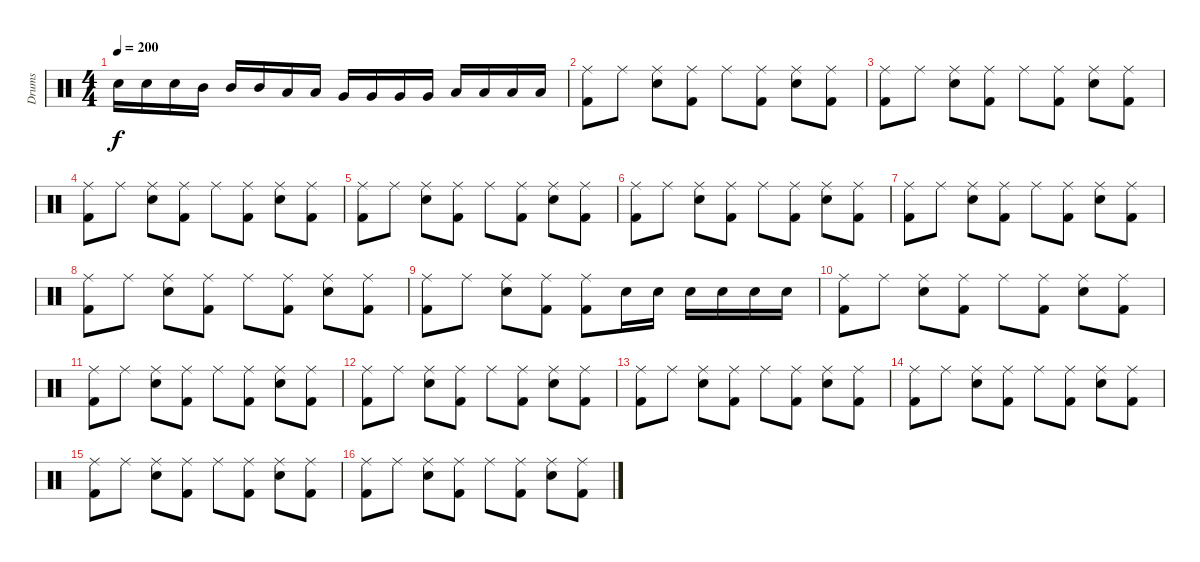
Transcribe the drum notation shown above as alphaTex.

\track ("Drums" "Drums") {instrument percussion}
\staff {score}
\articulation defaults
\ts (4 4)
\tempo 200
\clef neutral
\ks c "Electric Snare (hit)".16{dy f} "Electric Snare (hit)".16 "Electric Snare (hit)".16 "Mid Tom (hit)".16 "Mid Tom (hit)".16 "Mid Tom (hit)".16 "Low Tom (hit)".16 "Low Tom (hit)".16 "Very Low Tom (hit)".16 "Very Low Tom (hit)".16 "Very Low Tom (hit)".16 "Very Low Tom (hit)".16 "Low Floor Tom (hit)".16 "Low Floor Tom (hit)".16 "Low Floor Tom (hit)".16 "Low Floor Tom (hit)".16
|
("Kick (hit) 2" "Ride (middle)").8 "Ride (middle)".8 ("Electric Snare (hit)" "Ride (middle)").8 ("Kick (hit) 2" "Ride (middle)").8 "Ride (middle)".8 ("Kick (hit) 2" "Ride (middle)").8 ("Electric Snare (hit)" "Ride (middle)").8 ("Kick (hit) 2" "Ride (middle)").8 |
("Kick (hit) 2" "Ride (middle)").8 "Ride (middle)".8 ("Electric Snare (hit)" "Ride (middle)").8 ("Kick (hit) 2" "Ride (middle)").8 "Ride (middle)".8 ("Kick (hit) 2" "Ride (middle)").8 ("Electric Snare (hit)" "Ride (middle)").8 ("Kick (hit) 2" "Ride (middle)").8 |
("Kick (hit) 2" "Ride (middle)").8 "Ride (middle)".8 ("Electric Snare (hit)" "Ride (middle)").8 ("Kick (hit) 2" "Ride (middle)").8 "Ride (middle)".8 ("Kick (hit) 2" "Ride (middle)").8 ("Electric Snare (hit)" "Ride (middle)").8 ("Kick (hit) 2" "Ride (middle)").8 |
("Kick (hit) 2" "Ride (middle)").8 "Ride (middle)".8 ("Electric Snare (hit)" "Ride (middle)").8 ("Kick (hit) 2" "Ride (middle)").8 "Ride (middle)".8 ("Kick (hit) 2" "Ride (middle)").8 ("Electric Snare (hit)" "Ride (middle)").8 ("Kick (hit) 2" "Ride (middle)").8 |
("Kick (hit) 2" "Ride (middle)").8 "Ride (middle)".8 ("Electric Snare (hit)" "Ride (middle)").8 ("Kick (hit) 2" "Ride (middle)").8 "Ride (middle)".8 ("Kick (hit) 2" "Ride (middle)").8 ("Electric Snare (hit)" "Ride (middle)").8 ("Kick (hit) 2" "Ride (middle)").8 |
("Kick (hit) 2" "Ride (middle)").8 "Ride (middle)".8 ("Electric Snare (hit)" "Ride (middle)").8 ("Kick (hit) 2" "Ride (middle)").8 "Ride (middle)".8 ("Kick (hit) 2" "Ride (middle)").8 ("Electric Snare (hit)" "Ride (middle)").8 ("Kick (hit) 2" "Ride (middle)").8 |
("Kick (hit) 2" "Ride (middle)").8 "Ride (middle)".8 ("Electric Snare (hit)" "Ride (middle)").8 ("Kick (hit) 2" "Ride (middle)").8 "Ride (middle)".8 ("Kick (hit) 2" "Ride (middle)").8 ("Electric Snare (hit)" "Ride (middle)").8 ("Kick (hit) 2" "Ride (middle)").8 |
("Kick (hit) 2" "Ride (middle)").8 "Ride (middle)".8 ("Electric Snare (hit)" "Ride (middle)").8 ("Kick (hit) 2" "Ride (middle)").8 ("Kick (hit) 2" "Ride (middle)").8 "Electric Snare (hit)".16 "Electric Snare (hit)".16 "Electric Snare (hit)".16 "Electric Snare (hit)".16 "Electric Snare (hit)".16 "Electric Snare (hit)".16 |
("Kick (hit) 2" "Ride (middle)").8 "Ride (middle)".8 ("Electric Snare (hit)" "Ride (middle)").8 ("Kick (hit) 2" "Ride (middle)").8 "Ride (middle)".8 ("Kick (hit) 2" "Ride (middle)").8 ("Electric Snare (hit)" "Ride (middle)").8 ("Kick (hit) 2" "Ride (middle)").8 |
("Kick (hit) 2" "Ride (middle)").8 "Ride (middle)".8 ("Electric Snare (hit)" "Ride (middle)").8 ("Kick (hit) 2" "Ride (middle)").8 "Ride (middle)".8 ("Kick (hit) 2" "Ride (middle)").8 ("Electric Snare (hit)" "Ride (middle)").8 ("Kick (hit) 2" "Ride (middle)").8 |
("Kick (hit) 2" "Ride (middle)").8 "Ride (middle)".8 ("Electric Snare (hit)" "Ride (middle)").8 ("Kick (hit) 2" "Ride (middle)").8 "Ride (middle)".8 ("Kick (hit) 2" "Ride (middle)").8 ("Electric Snare (hit)" "Ride (middle)").8 ("Kick (hit) 2" "Ride (middle)").8 |
("Kick (hit) 2" "Ride (middle)").8 "Ride (middle)".8 ("Electric Snare (hit)" "Ride (middle)").8 ("Kick (hit) 2" "Ride (middle)").8 "Ride (middle)".8 ("Kick (hit) 2" "Ride (middle)").8 ("Electric Snare (hit)" "Ride (middle)").8 ("Kick (hit) 2" "Ride (middle)").8 |
("Kick (hit) 2" "Ride (middle)").8 "Ride (middle)".8 ("Electric Snare (hit)" "Ride (middle)").8 ("Kick (hit) 2" "Ride (middle)").8 "Ride (middle)".8 ("Kick (hit) 2" "Ride (middle)").8 ("Electric Snare (hit)" "Ride (middle)").8 ("Kick (hit) 2" "Ride (middle)").8 |
("Kick (hit) 2" "Ride (middle)").8 "Ride (middle)".8 ("Electric Snare (hit)" "Ride (middle)").8 ("Kick (hit) 2" "Ride (middle)").8 "Ride (middle)".8 ("Kick (hit) 2" "Ride (middle)").8 ("Electric Snare (hit)" "Ride (middle)").8 ("Kick (hit) 2" "Ride (middle)").8 |
("Kick (hit) 2" "Ride (middle)").8 "Ride (middle)".8 ("Electric Snare (hit)" "Ride (middle)").8 ("Kick (hit) 2" "Ride (middle)").8 "Ride (middle)".8 ("Kick (hit) 2" "Ride (middle)").8 ("Electric Snare (hit)" "Ride (middle)").8 ("Kick (hit) 2" "Ride (middle)").8
